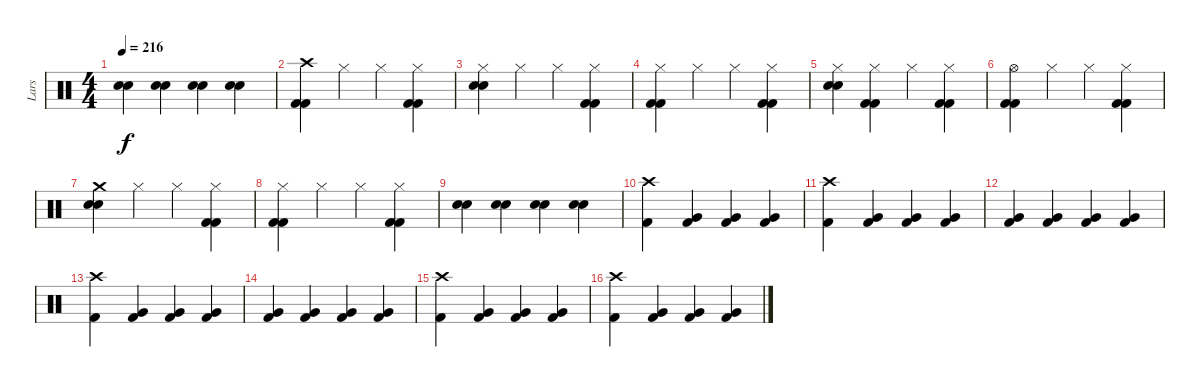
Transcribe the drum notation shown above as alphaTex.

\track ("Lars" "Lars") {instrument percussion}
\staff {score}
\articulation defaults
\ts (4 4)
\tempo 216
\clef neutral
\ks c
("Electric Snare (hit)" "Electric Snare (hit)").4{dy f} ("Electric Snare (hit)" "Electric Snare (hit)").4 ("Electric Snare (hit)" "Electric Snare (hit)").4 ("Electric Snare (hit)" "Electric Snare (hit)").4 |
("Crash high (hit)" "Kick (hit) 2" "Kick (hit) 2").4 "Hi-Hat (closed)".4 "Hi-Hat (closed)".4 ("Hi-Hat (closed)" "Kick (hit) 2" "Kick (hit) 2").4 |
("Hi-Hat (closed)" "Electric Snare (hit)" "Electric Snare (hit)").4 "Hi-Hat (closed)".4 "Hi-Hat (closed)".4 ("Hi-Hat (closed)" "Kick (hit) 2" "Kick (hit) 2").4 |
("Hi-Hat (closed)" "Kick (hit) 2" "Kick (hit) 2").4 "Hi-Hat (closed)".4 "Hi-Hat (closed)".4 ("Hi-Hat (closed)" "Kick (hit) 2" "Kick (hit) 2").4 |
("Hi-Hat (closed)" "Electric Snare (hit)" "Electric Snare (hit)").4 ("Hi-Hat (closed)" "Kick (hit) 2" "Kick (hit) 2").4 "Hi-Hat (closed)".4 ("Hi-Hat (closed)" "Kick (hit) 2" "Kick (hit) 2").4 |
("Hi-Hat (open)" "Kick (hit) 2" "Kick (hit) 2").4 "Hi-Hat (closed)".4 "Hi-Hat (closed)".4 ("Hi-Hat (closed)" "Kick (hit) 2" "Kick (hit) 2").4 |
("Crash medium (hit)" "Electric Snare (hit)" "Electric Snare (hit)").4 "Hi-Hat (closed)".4 "Hi-Hat (closed)".4 ("Hi-Hat (closed)" "Kick (hit) 2" "Kick (hit) 2").4 |
("Hi-Hat (closed)" "Kick (hit) 2" "Kick (hit) 2").4 "Hi-Hat (closed)".4 "Hi-Hat (closed)".4 ("Hi-Hat (closed)" "Kick (hit) 2" "Kick (hit) 2").4 |
("Electric Snare (hit)" "Electric Snare (hit)").4 ("Electric Snare (hit)" "Electric Snare (hit)").4 ("Electric Snare (hit)" "Electric Snare (hit)").4 ("Electric Snare (hit)" "Electric Snare (hit)").4 |
("Crash high (hit)" "Kick (hit) 2").4 ("Very Low Tom (hit)" "Kick (hit) 2").4 ("Very Low Tom (hit)" "Kick (hit) 2").4 ("Very Low Tom (hit)" "Kick (hit) 2").4 |
("Crash high (hit)" "Kick (hit) 2").4 ("Very Low Tom (hit)" "Kick (hit) 2").4 ("Very Low Tom (hit)" "Kick (hit) 2").4 ("Very Low Tom (hit)" "Kick (hit) 2").4 |
("Very Low Tom (hit)" "Kick (hit) 2").4 ("Very Low Tom (hit)" "Kick (hit) 2").4 ("Very Low Tom (hit)" "Kick (hit) 2").4 ("Very Low Tom (hit)" "Kick (hit) 2").4 |
("Crash high (hit)" "Kick (hit) 2").4 ("Very Low Tom (hit)" "Kick (hit) 2").4 ("Very Low Tom (hit)" "Kick (hit) 2").4 ("Very Low Tom (hit)" "Kick (hit) 2").4 |
("Very Low Tom (hit)" "Kick (hit) 2").4 ("Very Low Tom (hit)" "Kick (hit) 2").4 ("Very Low Tom (hit)" "Kick (hit) 2").4 ("Very Low Tom (hit)" "Kick (hit) 2").4 |
("Crash high (hit)" "Kick (hit) 2").4 ("Very Low Tom (hit)" "Kick (hit) 2").4 ("Very Low Tom (hit)" "Kick (hit) 2").4 ("Very Low Tom (hit)" "Kick (hit) 2").4 |
("Crash high (hit)" "Kick (hit) 2").4 ("Very Low Tom (hit)" "Kick (hit) 2").4 ("Very Low Tom (hit)" "Kick (hit) 2").4 ("Very Low Tom (hit)" "Kick (hit) 2").4
